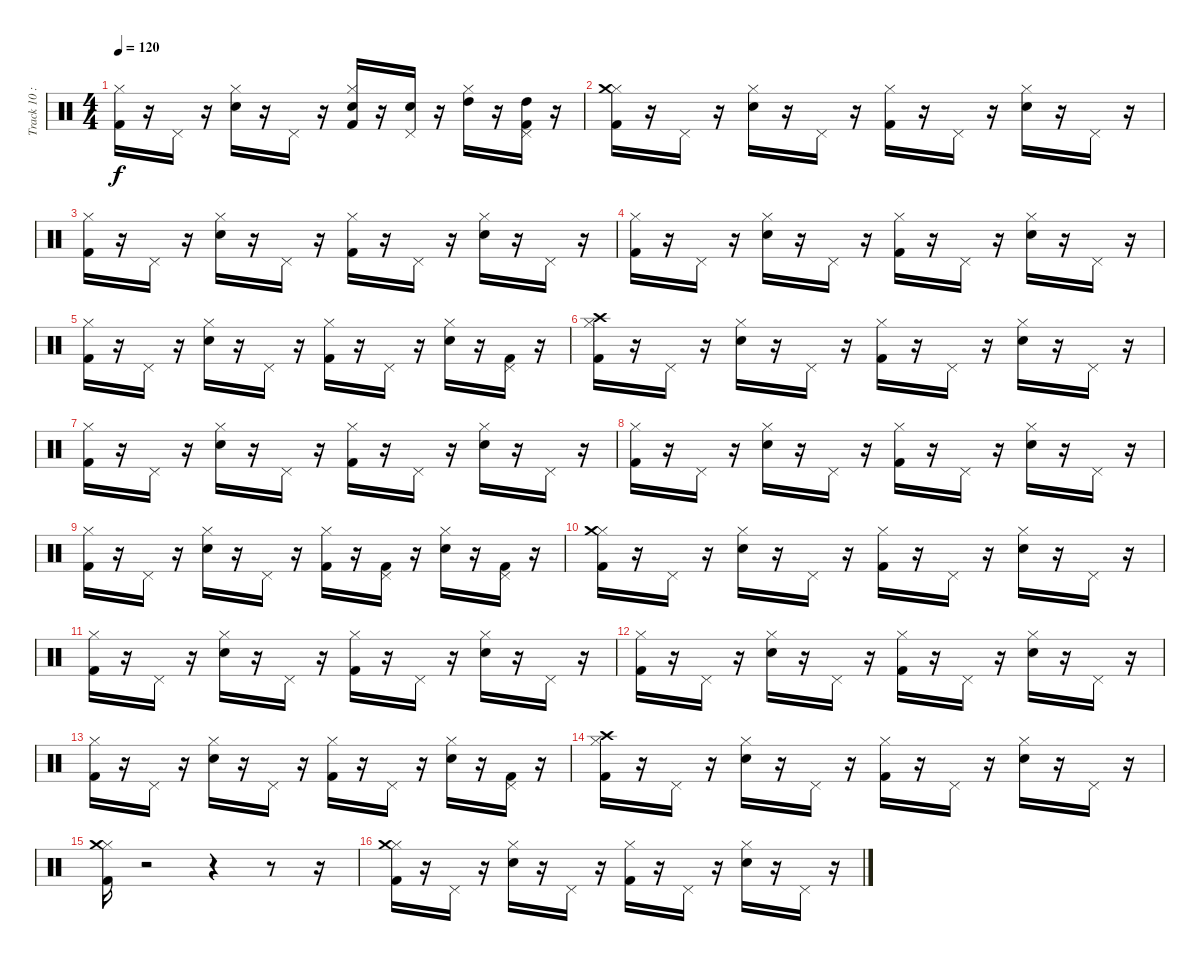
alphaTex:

\track ("Track 10 : unspecified" "Track 10 :") {instrument percussion}
\staff {score}
\articulation defaults
\ts (4 4)
\tempo 120
\clef neutral
\ks c
("Kick (hit) 2" "Hi-Hat (closed)").16{dy f} r.16 "Pedal Hi-Hat (hit)".16 r.16 ("Electric Snare (hit)" "Hi-Hat (closed)").16 r.16 "Pedal Hi-Hat (hit)".16 r.16 ("Electric Snare (hit)" "Hi-Hat (closed)" "Kick (hit) 2").16 r.16 ("Electric Snare (hit)" "Pedal Hi-Hat (hit)").16 r.16 ("High Tom (hit)" "Hi-Hat (closed)").16 r.16 ("High Tom (hit)" "Pedal Hi-Hat (hit)" "Kick (hit) 2").16 r.16 |
("Hi-Hat (closed)" "Crash medium (hit)" "Kick (hit) 2").16 r.16 "Pedal Hi-Hat (hit)".16 r.16 ("Hi-Hat (closed)" "Electric Snare (hit)").16 r.16 "Pedal Hi-Hat (hit)".16 r.16 ("Hi-Hat (closed)" "Kick (hit) 2").16 r.16 "Pedal Hi-Hat (hit)".16 r.16 ("Electric Snare (hit)" "Hi-Hat (closed)").16 r.16 "Pedal Hi-Hat (hit)".16 r.16 |
("Kick (hit) 2" "Hi-Hat (closed)").16 r.16 "Pedal Hi-Hat (hit)".16 r.16 ("Electric Snare (hit)" "Hi-Hat (closed)").16 r.16 "Pedal Hi-Hat (hit)".16 r.16 ("Hi-Hat (closed)" "Kick (hit) 2").16 r.16 "Pedal Hi-Hat (hit)".16 r.16 ("Electric Snare (hit)" "Hi-Hat (closed)").16 r.16 "Pedal Hi-Hat (hit)".16 r.16 |
("Kick (hit) 2" "Hi-Hat (closed)").16 r.16 "Pedal Hi-Hat (hit)".16 r.16 ("Electric Snare (hit)" "Hi-Hat (closed)").16 r.16 "Pedal Hi-Hat (hit)".16 r.16 ("Kick (hit) 2" "Hi-Hat (closed)").16 r.16 "Pedal Hi-Hat (hit)".16 r.16 ("Electric Snare (hit)" "Hi-Hat (closed)").16 r.16 "Pedal Hi-Hat (hit)".16 r.16 |
("Kick (hit) 2" "Hi-Hat (closed)").16 r.16 "Pedal Hi-Hat (hit)".16 r.16 ("Electric Snare (hit)" "Hi-Hat (closed)").16 r.16 "Pedal Hi-Hat (hit)".16 r.16 ("Hi-Hat (closed)" "Kick (hit) 2").16 r.16 "Pedal Hi-Hat (hit)".16 r.16 ("Electric Snare (hit)" "Hi-Hat (closed)").16 r.16 ("Pedal Hi-Hat (hit)" "Kick (hit) 2").16 r.16 |
("Hi-Hat (closed)" "Crash high (hit)" "Kick (hit) 2").16 r.16 "Pedal Hi-Hat (hit)".16 r.16 ("Hi-Hat (closed)" "Electric Snare (hit)").16 r.16 "Pedal Hi-Hat (hit)".16 r.16 ("Hi-Hat (closed)" "Kick (hit) 2").16 r.16 "Pedal Hi-Hat (hit)".16 r.16 ("Electric Snare (hit)" "Hi-Hat (closed)").16 r.16 "Pedal Hi-Hat (hit)".16 r.16 |
("Kick (hit) 2" "Hi-Hat (closed)").16 r.16 "Pedal Hi-Hat (hit)".16 r.16 ("Electric Snare (hit)" "Hi-Hat (closed)").16 r.16 "Pedal Hi-Hat (hit)".16 r.16 ("Hi-Hat (closed)" "Kick (hit) 2").16 r.16 "Pedal Hi-Hat (hit)".16 r.16 ("Electric Snare (hit)" "Hi-Hat (closed)").16 r.16 "Pedal Hi-Hat (hit)".16 r.16 |
("Kick (hit) 2" "Hi-Hat (closed)").16 r.16 "Pedal Hi-Hat (hit)".16 r.16 ("Electric Snare (hit)" "Hi-Hat (closed)").16 r.16 "Pedal Hi-Hat (hit)".16 r.16 ("Kick (hit) 2" "Hi-Hat (closed)").16 r.16 "Pedal Hi-Hat (hit)".16 r.16 ("Electric Snare (hit)" "Hi-Hat (closed)").16 r.16 "Pedal Hi-Hat (hit)".16 r.16 |
("Kick (hit) 2" "Hi-Hat (closed)").16 r.16 "Pedal Hi-Hat (hit)".16 r.16 ("Electric Snare (hit)" "Hi-Hat (closed)").16 r.16 "Pedal Hi-Hat (hit)".16 r.16 ("Hi-Hat (closed)" "Kick (hit) 2").16 r.16 ("Kick (hit) 2" "Pedal Hi-Hat (hit)").16 r.16 ("Electric Snare (hit)" "Hi-Hat (closed)").16 r.16 ("Pedal Hi-Hat (hit)" "Kick (hit) 2").16 r.16 |
("Hi-Hat (closed)" "Crash medium (hit)" "Kick (hit) 2").16 r.16 "Pedal Hi-Hat (hit)".16 r.16 ("Hi-Hat (closed)" "Electric Snare (hit)").16 r.16 "Pedal Hi-Hat (hit)".16 r.16 ("Hi-Hat (closed)" "Kick (hit) 2").16 r.16 "Pedal Hi-Hat (hit)".16 r.16 ("Electric Snare (hit)" "Hi-Hat (closed)").16 r.16 "Pedal Hi-Hat (hit)".16 r.16 |
("Kick (hit) 2" "Hi-Hat (closed)").16 r.16 "Pedal Hi-Hat (hit)".16 r.16 ("Electric Snare (hit)" "Hi-Hat (closed)").16 r.16 "Pedal Hi-Hat (hit)".16 r.16 ("Hi-Hat (closed)" "Kick (hit) 2").16 r.16 "Pedal Hi-Hat (hit)".16 r.16 ("Electric Snare (hit)" "Hi-Hat (closed)").16 r.16 "Pedal Hi-Hat (hit)".16 r.16 |
("Kick (hit) 2" "Hi-Hat (closed)").16 r.16 "Pedal Hi-Hat (hit)".16 r.16 ("Electric Snare (hit)" "Hi-Hat (closed)").16 r.16 "Pedal Hi-Hat (hit)".16 r.16 ("Kick (hit) 2" "Hi-Hat (closed)").16 r.16 "Pedal Hi-Hat (hit)".16 r.16 ("Electric Snare (hit)" "Hi-Hat (closed)").16 r.16 "Pedal Hi-Hat (hit)".16 r.16 |
("Kick (hit) 2" "Hi-Hat (closed)").16 r.16 "Pedal Hi-Hat (hit)".16 r.16 ("Electric Snare (hit)" "Hi-Hat (closed)").16 r.16 "Pedal Hi-Hat (hit)".16 r.16 ("Hi-Hat (closed)" "Kick (hit) 2").16 r.16 "Pedal Hi-Hat (hit)".16 r.16 ("Electric Snare (hit)" "Hi-Hat (closed)").16 r.16 ("Pedal Hi-Hat (hit)" "Kick (hit) 2").16 r.16 |
("Hi-Hat (closed)" "Crash high (hit)" "Kick (hit) 2").16 r.16 "Pedal Hi-Hat (hit)".16 r.16 ("Hi-Hat (closed)" "Electric Snare (hit)").16 r.16 "Pedal Hi-Hat (hit)".16 r.16 ("Hi-Hat (closed)" "Kick (hit) 2").16 r.16 "Pedal Hi-Hat (hit)".16 r.16 ("Electric Snare (hit)" "Hi-Hat (closed)").16 r.16 "Pedal Hi-Hat (hit)".16 r.16 |
("Kick (hit) 2" "Hi-Hat (closed)" "Crash medium (hit)").16 r.2 r.4 r.8 r.16 |
("Hi-Hat (closed)" "Crash medium (hit)" "Kick (hit) 2").16 r.16 "Pedal Hi-Hat (hit)".16 r.16 ("Hi-Hat (closed)" "Electric Snare (hit)").16 r.16 "Pedal Hi-Hat (hit)".16 r.16 ("Hi-Hat (closed)" "Kick (hit) 2").16 r.16 "Pedal Hi-Hat (hit)".16 r.16 ("Electric Snare (hit)" "Hi-Hat (closed)").16 r.16 "Pedal Hi-Hat (hit)".16 r.16
